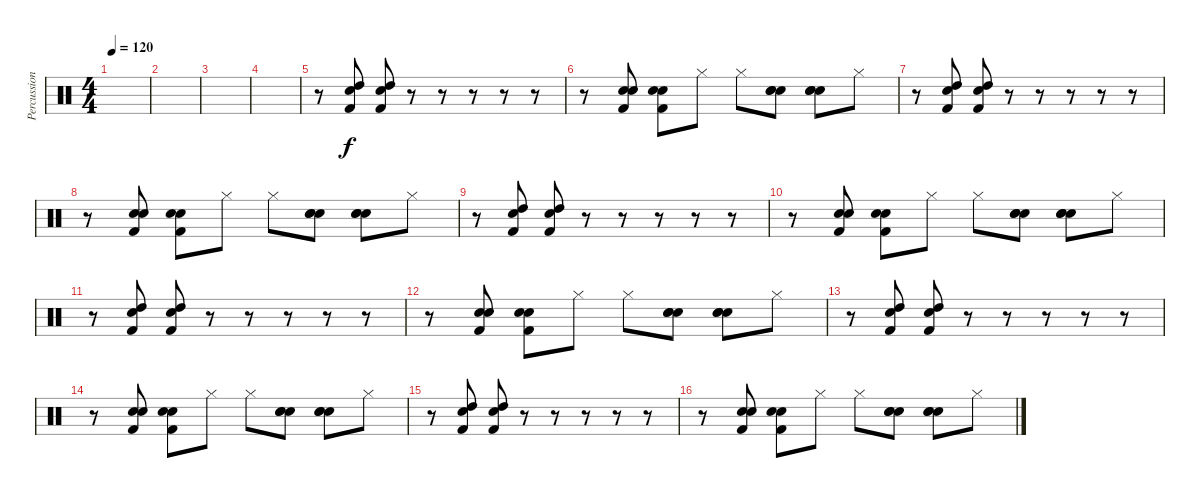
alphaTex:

\track ("Percussion" "Percussion") {instrument percussion}
\staff {score}
\articulation defaults
\ts (4 4)
\tempo 120
\clef neutral
\ks c
|
|
|
|
r.8 ("High Tom (hit)" "Electric Snare (hit)" "Kick (hit) 2").8 ("High Tom (hit)" "Electric Snare (hit)" "Kick (hit) 2").8 r.8 r.8 r.8 r.8 r.8 |
r.8 ("Electric Snare (hit)" "Electric Snare (hit)" "Kick (hit) 2").8 ("Electric Snare (hit)" "Electric Snare (hit)" "Kick (hit) 2").8 "Hi-Hat (closed)".8 "Hi-Hat (closed)".8 ("Electric Snare (hit)" "Electric Snare (hit)" "Electric Snare (hit)").8 ("Electric Snare (hit)" "Electric Snare (hit)" "Electric Snare (hit)").8 "Hi-Hat (closed)".8 |
r.8 ("High Tom (hit)" "Electric Snare (hit)" "Kick (hit) 2").8 ("High Tom (hit)" "Electric Snare (hit)" "Kick (hit) 2").8 r.8 r.8 r.8 r.8 r.8 |
r.8 ("Electric Snare (hit)" "Electric Snare (hit)" "Kick (hit) 2").8 ("Electric Snare (hit)" "Electric Snare (hit)" "Kick (hit) 2").8 "Hi-Hat (closed)".8 "Hi-Hat (closed)".8 ("Electric Snare (hit)" "Electric Snare (hit)" "Electric Snare (hit)").8 ("Electric Snare (hit)" "Electric Snare (hit)" "Electric Snare (hit)").8 "Hi-Hat (closed)".8 |
r.8 ("High Tom (hit)" "Electric Snare (hit)" "Kick (hit) 2").8 ("High Tom (hit)" "Electric Snare (hit)" "Kick (hit) 2").8 r.8 r.8 r.8 r.8 r.8 |
r.8 ("Electric Snare (hit)" "Electric Snare (hit)" "Kick (hit) 2").8 ("Electric Snare (hit)" "Electric Snare (hit)" "Kick (hit) 2").8 "Hi-Hat (closed)".8 "Hi-Hat (closed)".8 ("Electric Snare (hit)" "Electric Snare (hit)" "Electric Snare (hit)").8 ("Electric Snare (hit)" "Electric Snare (hit)" "Electric Snare (hit)").8 "Hi-Hat (closed)".8 |
r.8 ("High Tom (hit)" "Electric Snare (hit)" "Kick (hit) 2").8 ("High Tom (hit)" "Electric Snare (hit)" "Kick (hit) 2").8 r.8 r.8 r.8 r.8 r.8 |
r.8 ("Electric Snare (hit)" "Electric Snare (hit)" "Kick (hit) 2").8 ("Electric Snare (hit)" "Electric Snare (hit)" "Kick (hit) 2").8 "Hi-Hat (closed)".8 "Hi-Hat (closed)".8 ("Electric Snare (hit)" "Electric Snare (hit)" "Electric Snare (hit)").8 ("Electric Snare (hit)" "Electric Snare (hit)" "Electric Snare (hit)").8 "Hi-Hat (closed)".8 |
r.8 ("High Tom (hit)" "Electric Snare (hit)" "Kick (hit) 2").8 ("High Tom (hit)" "Electric Snare (hit)" "Kick (hit) 2").8 r.8 r.8 r.8 r.8 r.8 |
r.8 ("Electric Snare (hit)" "Electric Snare (hit)" "Kick (hit) 2").8 ("Electric Snare (hit)" "Electric Snare (hit)" "Kick (hit) 2").8 "Hi-Hat (closed)".8 "Hi-Hat (closed)".8 ("Electric Snare (hit)" "Electric Snare (hit)" "Electric Snare (hit)").8 ("Electric Snare (hit)" "Electric Snare (hit)" "Electric Snare (hit)").8 "Hi-Hat (closed)".8 |
r.8 ("High Tom (hit)" "Electric Snare (hit)" "Kick (hit) 2").8 ("High Tom (hit)" "Electric Snare (hit)" "Kick (hit) 2").8 r.8 r.8 r.8 r.8 r.8 |
r.8 ("Electric Snare (hit)" "Electric Snare (hit)" "Kick (hit) 2").8 ("Electric Snare (hit)" "Electric Snare (hit)" "Kick (hit) 2").8 "Hi-Hat (closed)".8 "Hi-Hat (closed)".8 ("Electric Snare (hit)" "Electric Snare (hit)" "Electric Snare (hit)").8 ("Electric Snare (hit)" "Electric Snare (hit)" "Electric Snare (hit)").8 "Hi-Hat (closed)".8
